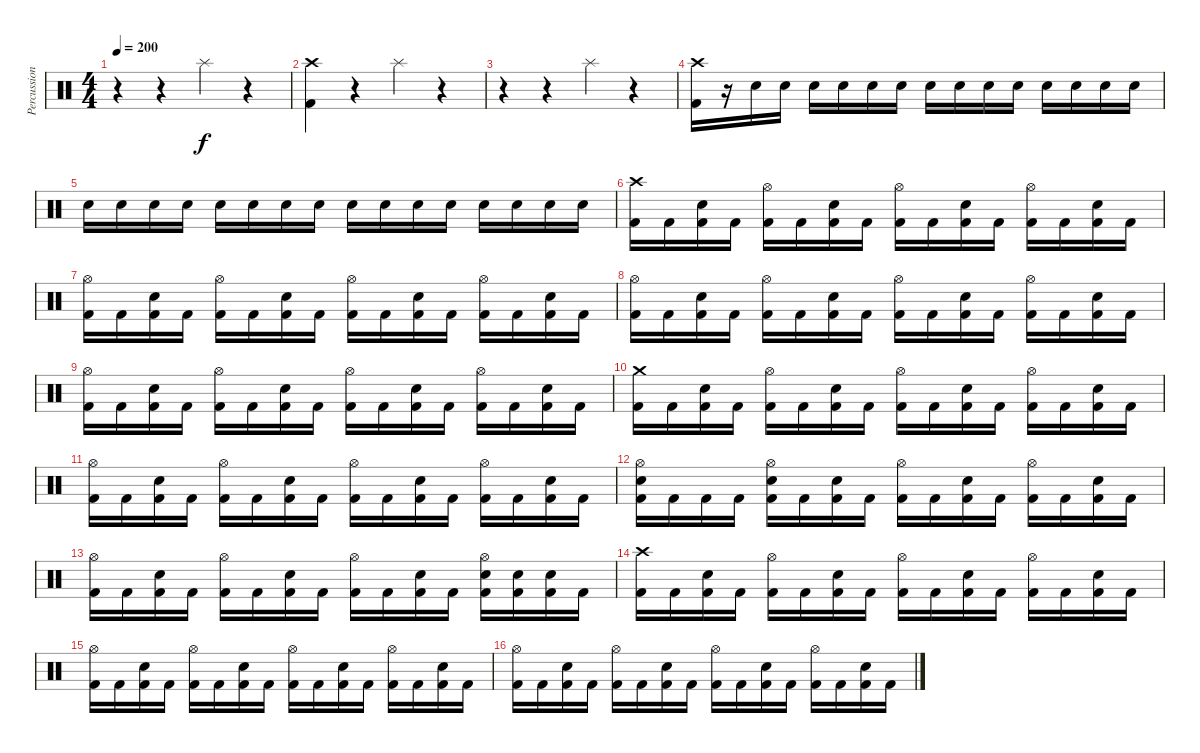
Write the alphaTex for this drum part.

\track ("Percussion" "Percussion") {instrument percussion}
\staff {score}
\articulation defaults
\ts (4 4)
\tempo 200
\clef neutral
\ks c
r.4{dy f} r.4 "Splash (hit)".4 r.4 |
("Crash high (hit)" "Kick (hit) 2").4 r.4 "Splash (hit)".4 r.4 |
r.4 r.4 "Splash (hit)".4 r.4 |
("Crash high (hit)" "Kick (hit) 2").16 r.16 "Electric Snare (hit)".16 "Electric Snare (hit)".16 "Electric Snare (hit)".16 "Electric Snare (hit)".16 "Electric Snare (hit)".16 "Electric Snare (hit)".16 "Electric Snare (hit)".16 "Electric Snare (hit)".16 "Electric Snare (hit)".16 "Electric Snare (hit)".16 "Electric Snare (hit)".16 "Electric Snare (hit)".16 "Electric Snare (hit)".16 "Electric Snare (hit)".16 |
"Electric Snare (hit)".16 "Electric Snare (hit)".16 "Electric Snare (hit)".16 "Electric Snare (hit)".16 "Electric Snare (hit)".16 "Electric Snare (hit)".16 "Electric Snare (hit)".16 "Electric Snare (hit)".16 "Electric Snare (hit)".16 "Electric Snare (hit)".16 "Electric Snare (hit)".16 "Electric Snare (hit)".16 "Electric Snare (hit)".16 "Electric Snare (hit)".16 "Electric Snare (hit)".16 "Electric Snare (hit)".16 |
("Crash high (hit)" "Kick (hit) 2").16 "Kick (hit) 2".16 ("Electric Snare (hit)" "Kick (hit) 2").16 "Kick (hit) 2".16 ("Hi-Hat (open)" "Kick (hit) 2").16 "Kick (hit) 2".16 ("Electric Snare (hit)" "Kick (hit) 2").16 "Kick (hit) 2".16 ("Hi-Hat (open)" "Kick (hit) 2").16 "Kick (hit) 2".16 ("Electric Snare (hit)" "Kick (hit) 2").16 "Kick (hit) 2".16 ("Hi-Hat (open)" "Kick (hit) 2").16 "Kick (hit) 2".16 ("Electric Snare (hit)" "Kick (hit) 2").16 "Kick (hit) 2".16 |
("Hi-Hat (open)" "Kick (hit) 2").16 "Kick (hit) 2".16 ("Electric Snare (hit)" "Kick (hit) 2").16 "Kick (hit) 2".16 ("Hi-Hat (open)" "Kick (hit) 2").16 "Kick (hit) 2".16 ("Electric Snare (hit)" "Kick (hit) 2").16 "Kick (hit) 2".16 ("Hi-Hat (open)" "Kick (hit) 2").16 "Kick (hit) 2".16 ("Electric Snare (hit)" "Kick (hit) 2").16 "Kick (hit) 2".16 ("Hi-Hat (open)" "Kick (hit) 2").16 "Kick (hit) 2".16 ("Electric Snare (hit)" "Kick (hit) 2").16 "Kick (hit) 2".16 |
("Hi-Hat (open)" "Kick (hit) 2").16 "Kick (hit) 2".16 ("Electric Snare (hit)" "Kick (hit) 2").16 "Kick (hit) 2".16 ("Hi-Hat (open)" "Kick (hit) 2").16 "Kick (hit) 2".16 ("Electric Snare (hit)" "Kick (hit) 2").16 "Kick (hit) 2".16 ("Hi-Hat (open)" "Kick (hit) 2").16 "Kick (hit) 2".16 ("Electric Snare (hit)" "Kick (hit) 2").16 "Kick (hit) 2".16 ("Hi-Hat (open)" "Kick (hit) 2").16 "Kick (hit) 2".16 ("Electric Snare (hit)" "Kick (hit) 2").16 "Kick (hit) 2".16 |
("Hi-Hat (open)" "Kick (hit) 2").16 "Kick (hit) 2".16 ("Electric Snare (hit)" "Kick (hit) 2").16 "Kick (hit) 2".16 ("Hi-Hat (open)" "Kick (hit) 2").16 "Kick (hit) 2".16 ("Electric Snare (hit)" "Kick (hit) 2").16 "Kick (hit) 2".16 ("Hi-Hat (open)" "Kick (hit) 2").16 "Kick (hit) 2".16 ("Electric Snare (hit)" "Kick (hit) 2").16 "Kick (hit) 2".16 ("Hi-Hat (open)" "Kick (hit) 2").16 "Kick (hit) 2".16 ("Electric Snare (hit)" "Kick (hit) 2").16 "Kick (hit) 2".16 |
("Crash medium (hit)" "Kick (hit) 2").16 "Kick (hit) 2".16 ("Electric Snare (hit)" "Kick (hit) 2").16 "Kick (hit) 2".16 ("Hi-Hat (open)" "Kick (hit) 2").16 "Kick (hit) 2".16 ("Electric Snare (hit)" "Kick (hit) 2").16 "Kick (hit) 2".16 ("Hi-Hat (open)" "Kick (hit) 2").16 "Kick (hit) 2".16 ("Electric Snare (hit)" "Kick (hit) 2").16 "Kick (hit) 2".16 ("Hi-Hat (open)" "Kick (hit) 2").16 "Kick (hit) 2".16 ("Electric Snare (hit)" "Kick (hit) 2").16 "Kick (hit) 2".16 |
("Hi-Hat (open)" "Kick (hit) 2").16 "Kick (hit) 2".16 ("Electric Snare (hit)" "Kick (hit) 2").16 "Kick (hit) 2".16 ("Hi-Hat (open)" "Kick (hit) 2").16 "Kick (hit) 2".16 ("Electric Snare (hit)" "Kick (hit) 2").16 "Kick (hit) 2".16 ("Hi-Hat (open)" "Kick (hit) 2").16 "Kick (hit) 2".16 ("Electric Snare (hit)" "Kick (hit) 2").16 "Kick (hit) 2".16 ("Hi-Hat (open)" "Kick (hit) 2").16 "Kick (hit) 2".16 ("Electric Snare (hit)" "Kick (hit) 2").16 "Kick (hit) 2".16 |
("Hi-Hat (open)" "Electric Snare (hit)" "Kick (hit) 2").16 "Kick (hit) 2".16 "Kick (hit) 2".16 "Kick (hit) 2".16 ("Hi-Hat (open)" "Electric Snare (hit)" "Kick (hit) 2").16 "Kick (hit) 2".16 ("Electric Snare (hit)" "Kick (hit) 2").16 "Kick (hit) 2".16 ("Hi-Hat (open)" "Kick (hit) 2").16 "Kick (hit) 2".16 ("Electric Snare (hit)" "Kick (hit) 2").16 "Kick (hit) 2".16 ("Hi-Hat (open)" "Kick (hit) 2").16 "Kick (hit) 2".16 ("Electric Snare (hit)" "Kick (hit) 2").16 "Kick (hit) 2".16 |
("Hi-Hat (open)" "Kick (hit) 2").16 "Kick (hit) 2".16 ("Electric Snare (hit)" "Kick (hit) 2").16 "Kick (hit) 2".16 ("Hi-Hat (open)" "Kick (hit) 2").16 "Kick (hit) 2".16 ("Electric Snare (hit)" "Kick (hit) 2").16 "Kick (hit) 2".16 ("Hi-Hat (open)" "Kick (hit) 2").16 "Kick (hit) 2".16 ("Electric Snare (hit)" "Kick (hit) 2").16 "Kick (hit) 2".16 ("Hi-Hat (open)" "Electric Snare (hit)" "Kick (hit) 2").16 ("Electric Snare (hit)" "Kick (hit) 2").16 ("Electric Snare (hit)" "Kick (hit) 2").16 "Kick (hit) 2".16 |
("Crash high (hit)" "Kick (hit) 2").16 "Kick (hit) 2".16 ("Electric Snare (hit)" "Kick (hit) 2").16 "Kick (hit) 2".16 ("Hi-Hat (open)" "Kick (hit) 2").16 "Kick (hit) 2".16 ("Electric Snare (hit)" "Kick (hit) 2").16 "Kick (hit) 2".16 ("Hi-Hat (open)" "Kick (hit) 2").16 "Kick (hit) 2".16 ("Electric Snare (hit)" "Kick (hit) 2").16 "Kick (hit) 2".16 ("Hi-Hat (open)" "Kick (hit) 2").16 "Kick (hit) 2".16 ("Electric Snare (hit)" "Kick (hit) 2").16 "Kick (hit) 2".16 |
("Hi-Hat (open)" "Kick (hit) 2").16 "Kick (hit) 2".16 ("Electric Snare (hit)" "Kick (hit) 2").16 "Kick (hit) 2".16 ("Hi-Hat (open)" "Kick (hit) 2").16 "Kick (hit) 2".16 ("Electric Snare (hit)" "Kick (hit) 2").16 "Kick (hit) 2".16 ("Hi-Hat (open)" "Kick (hit) 2").16 "Kick (hit) 2".16 ("Electric Snare (hit)" "Kick (hit) 2").16 "Kick (hit) 2".16 ("Hi-Hat (open)" "Kick (hit) 2").16 "Kick (hit) 2".16 ("Electric Snare (hit)" "Kick (hit) 2").16 "Kick (hit) 2".16 |
("Hi-Hat (open)" "Kick (hit) 2").16 "Kick (hit) 2".16 ("Electric Snare (hit)" "Kick (hit) 2").16 "Kick (hit) 2".16 ("Hi-Hat (open)" "Kick (hit) 2").16 "Kick (hit) 2".16 ("Electric Snare (hit)" "Kick (hit) 2").16 "Kick (hit) 2".16 ("Hi-Hat (open)" "Kick (hit) 2").16 "Kick (hit) 2".16 ("Electric Snare (hit)" "Kick (hit) 2").16 "Kick (hit) 2".16 ("Hi-Hat (open)" "Kick (hit) 2").16 "Kick (hit) 2".16 ("Electric Snare (hit)" "Kick (hit) 2").16 "Kick (hit) 2".16
